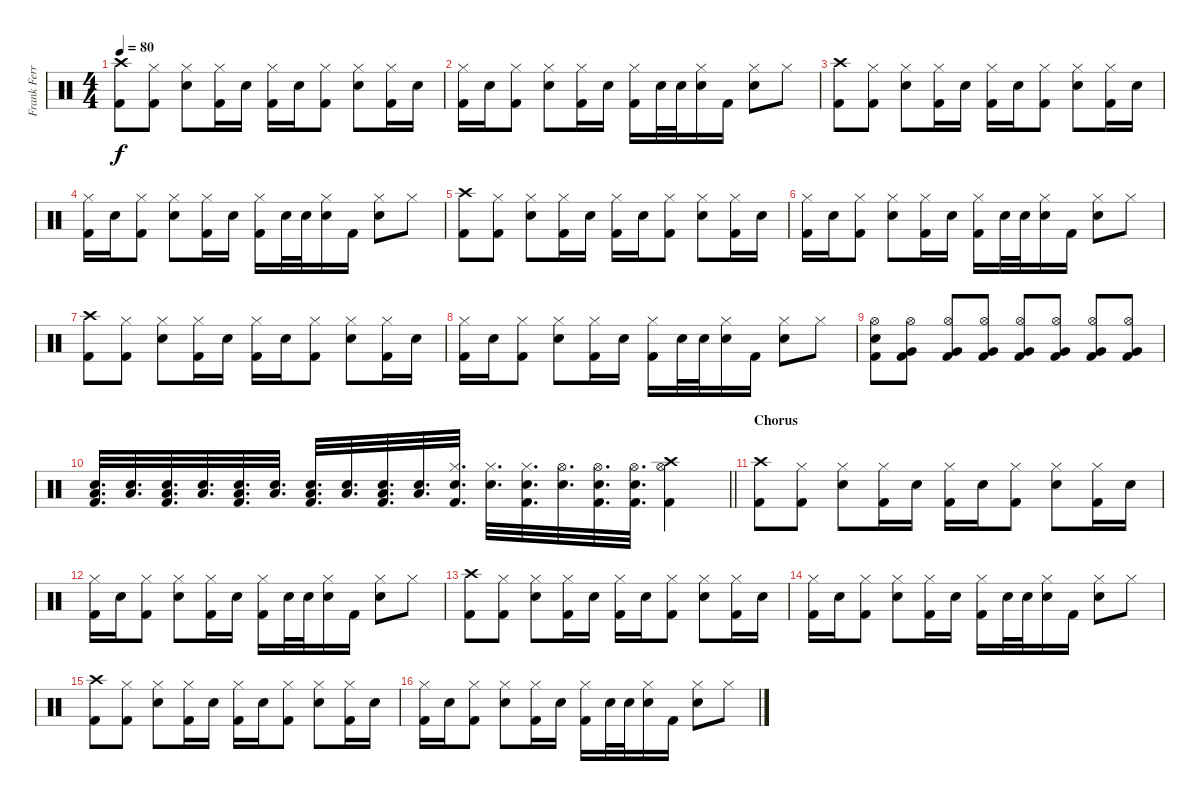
\track ("Frank Ferrer" "Frank Ferr") {instrument percussion}
\staff {score}
\articulation defaults
\ts (4 4)
\tempo 80
\clef neutral
\ks c
("Crash high (hit)" "Kick (hit) 2").8{dy f} ("Hi-Hat (closed)" "Kick (hit) 2").8 ("Hi-Hat (closed)" "Snare (hit) 2").8 ("Hi-Hat (closed)" "Kick (hit) 2").16 "Snare (hit) 2".16 ("Hi-Hat (closed)" "Kick (hit) 2").16 "Snare (hit) 2".16 ("Hi-Hat (closed)" "Kick (hit) 2").8 ("Hi-Hat (closed)" "Snare (hit) 2").8 ("Hi-Hat (closed)" "Kick (hit) 2").16 "Snare (hit) 2".16 |
("Hi-Hat (closed)" "Kick (hit) 2").16 "Snare (hit) 2".16 ("Hi-Hat (closed)" "Kick (hit) 2").8 ("Hi-Hat (closed)" "Snare (hit) 2").8 ("Hi-Hat (closed)" "Kick (hit) 2").16 "Snare (hit) 2".16 ("Hi-Hat (closed)" "Kick (hit) 2").16 "Snare (hit) 2".32 "Snare (hit) 2".32 ("Hi-Hat (closed)" "Snare (hit) 2").16 "Kick (hit) 2".16 ("Hi-Hat (closed)" "Snare (hit) 2").8 "Hi-Hat (closed)".8 |
("Crash high (hit)" "Kick (hit) 2").8 ("Hi-Hat (closed)" "Kick (hit) 2").8 ("Hi-Hat (closed)" "Snare (hit) 2").8 ("Hi-Hat (closed)" "Kick (hit) 2").16 "Snare (hit) 2".16 ("Hi-Hat (closed)" "Kick (hit) 2").16 "Snare (hit) 2".16 ("Hi-Hat (closed)" "Kick (hit) 2").8 ("Hi-Hat (closed)" "Snare (hit) 2").8 ("Hi-Hat (closed)" "Kick (hit) 2").16 "Snare (hit) 2".16 |
("Hi-Hat (closed)" "Kick (hit) 2").16 "Snare (hit) 2".16 ("Hi-Hat (closed)" "Kick (hit) 2").8 ("Hi-Hat (closed)" "Snare (hit) 2").8 ("Hi-Hat (closed)" "Kick (hit) 2").16 "Snare (hit) 2".16 ("Hi-Hat (closed)" "Kick (hit) 2").16 "Snare (hit) 2".32 "Snare (hit) 2".32 ("Hi-Hat (closed)" "Snare (hit) 2").16 "Kick (hit) 2".16 ("Hi-Hat (closed)" "Snare (hit) 2").8 "Hi-Hat (closed)".8 |
("Crash high (hit)" "Kick (hit) 2").8 ("Hi-Hat (closed)" "Kick (hit) 2").8 ("Hi-Hat (closed)" "Snare (hit) 2").8 ("Hi-Hat (closed)" "Kick (hit) 2").16 "Snare (hit) 2".16 ("Hi-Hat (closed)" "Kick (hit) 2").16 "Snare (hit) 2".16 ("Hi-Hat (closed)" "Kick (hit) 2").8 ("Hi-Hat (closed)" "Snare (hit) 2").8 ("Hi-Hat (closed)" "Kick (hit) 2").16 "Snare (hit) 2".16 |
("Hi-Hat (closed)" "Kick (hit) 2").16 "Snare (hit) 2".16 ("Hi-Hat (closed)" "Kick (hit) 2").8 ("Hi-Hat (closed)" "Snare (hit) 2").8 ("Hi-Hat (closed)" "Kick (hit) 2").16 "Snare (hit) 2".16 ("Hi-Hat (closed)" "Kick (hit) 2").16 "Snare (hit) 2".32 "Snare (hit) 2".32 ("Hi-Hat (closed)" "Snare (hit) 2").16 "Kick (hit) 2".16 ("Hi-Hat (closed)" "Snare (hit) 2").8 "Hi-Hat (closed)".8 |
("Crash high (hit)" "Kick (hit) 2").8 ("Hi-Hat (closed)" "Kick (hit) 2").8 ("Hi-Hat (closed)" "Snare (hit) 2").8 ("Hi-Hat (closed)" "Kick (hit) 2").16 "Snare (hit) 2".16 ("Hi-Hat (closed)" "Kick (hit) 2").16 "Snare (hit) 2".16 ("Hi-Hat (closed)" "Kick (hit) 2").8 ("Hi-Hat (closed)" "Snare (hit) 2").8 ("Hi-Hat (closed)" "Kick (hit) 2").16 "Snare (hit) 2".16 |
("Hi-Hat (closed)" "Kick (hit) 2").16 "Snare (hit) 2".16 ("Hi-Hat (closed)" "Kick (hit) 2").8 ("Hi-Hat (closed)" "Snare (hit) 2").8 ("Hi-Hat (closed)" "Kick (hit) 2").16 "Snare (hit) 2".16 ("Hi-Hat (closed)" "Kick (hit) 2").16 "Snare (hit) 2".32 "Snare (hit) 2".32 ("Hi-Hat (closed)" "Snare (hit) 2").16 "Kick (hit) 2".16 ("Hi-Hat (closed)" "Snare (hit) 2").8 "Hi-Hat (closed)".8 |
("Hi-Hat (open)" "Snare (hit) 2" "Kick (hit) 2").8 ("Hi-Hat (open)" "Kick (hit) 2" "Very Low Tom (hit)").8 ("Hi-Hat (open)" "Kick (hit) 2" "Very Low Tom (hit)").8 ("Hi-Hat (open)" "Kick (hit) 2" "Very Low Tom (hit)").8 ("Hi-Hat (open)" "Kick (hit) 2" "Very Low Tom (hit)").8 ("Hi-Hat (open)" "Kick (hit) 2" "Very Low Tom (hit)").8 ("Hi-Hat (open)" "Kick (hit) 2" "Very Low Tom (hit)").8 ("Hi-Hat (open)" "Kick (hit) 2" "Very Low Tom (hit)").8 |
\barLineRight lightlight
("Low Floor Tom (hit)" "Snare (hit) 2" "Kick (hit) 2").32{d} ("Low Floor Tom (hit)" "Snare (hit) 2").32{d} ("Low Floor Tom (hit)" "Snare (hit) 2" "Kick (hit) 2").32{d} ("Low Floor Tom (hit)" "Snare (hit) 2").32{d} ("Low Floor Tom (hit)" "Snare (hit) 2" "Kick (hit) 2").32{d} ("Low Floor Tom (hit)" "Snare (hit) 2").32{d} ("Low Floor Tom (hit)" "Snare (hit) 2" "Kick (hit) 2").32{d} ("Low Floor Tom (hit)" "Snare (hit) 2").32{d} ("Low Floor Tom (hit)" "Snare (hit) 2" "Kick (hit) 2").32{d} ("Low Floor Tom (hit)" "Snare (hit) 2").32{d} ("Hi-Hat (closed)" "Snare (hit) 2" "Kick (hit) 2").32{d} ("Hi-Hat (closed)" "Snare (hit) 2").32{d} ("Hi-Hat (closed)" "Snare (hit) 2" "Kick (hit) 2").32{d} ("Hi-Hat (open)" "Snare (hit) 2").32{d} ("Hi-Hat (open)" "Snare (hit) 2" "Kick (hit) 2").32{d} ("Hi-Hat (open)" "Snare (hit) 2" "Kick (hit) 2").32{d} ("Crash high (hit)" "Hi-Hat (open)" "Kick (hit) 2").4 |
\section ("" "Chorus")
("Crash high (hit)" "Kick (hit) 2").8 ("Hi-Hat (closed)" "Kick (hit) 2").8 ("Hi-Hat (closed)" "Snare (hit) 2").8 ("Hi-Hat (closed)" "Kick (hit) 2").16 "Snare (hit) 2".16 ("Hi-Hat (closed)" "Kick (hit) 2").16 "Snare (hit) 2".16 ("Hi-Hat (closed)" "Kick (hit) 2").8 ("Hi-Hat (closed)" "Snare (hit) 2").8 ("Hi-Hat (closed)" "Kick (hit) 2").16 "Snare (hit) 2".16 |
("Hi-Hat (closed)" "Kick (hit) 2").16 "Snare (hit) 2".16 ("Hi-Hat (closed)" "Kick (hit) 2").8 ("Hi-Hat (closed)" "Snare (hit) 2").8 ("Hi-Hat (closed)" "Kick (hit) 2").16 "Snare (hit) 2".16 ("Hi-Hat (closed)" "Kick (hit) 2").16 "Snare (hit) 2".32 "Snare (hit) 2".32 ("Hi-Hat (closed)" "Snare (hit) 2").16 "Kick (hit) 2".16 ("Hi-Hat (closed)" "Snare (hit) 2").8 "Hi-Hat (closed)".8 |
("Crash high (hit)" "Kick (hit) 2").8 ("Hi-Hat (closed)" "Kick (hit) 2").8 ("Hi-Hat (closed)" "Snare (hit) 2").8 ("Hi-Hat (closed)" "Kick (hit) 2").16 "Snare (hit) 2".16 ("Hi-Hat (closed)" "Kick (hit) 2").16 "Snare (hit) 2".16 ("Hi-Hat (closed)" "Kick (hit) 2").8 ("Hi-Hat (closed)" "Snare (hit) 2").8 ("Hi-Hat (closed)" "Kick (hit) 2").16 "Snare (hit) 2".16 |
("Hi-Hat (closed)" "Kick (hit) 2").16 "Snare (hit) 2".16 ("Hi-Hat (closed)" "Kick (hit) 2").8 ("Hi-Hat (closed)" "Snare (hit) 2").8 ("Hi-Hat (closed)" "Kick (hit) 2").16 "Snare (hit) 2".16 ("Hi-Hat (closed)" "Kick (hit) 2").16 "Snare (hit) 2".32 "Snare (hit) 2".32 ("Hi-Hat (closed)" "Snare (hit) 2").16 "Kick (hit) 2".16 ("Hi-Hat (closed)" "Snare (hit) 2").8 "Hi-Hat (closed)".8 |
("Crash high (hit)" "Kick (hit) 2").8 ("Hi-Hat (closed)" "Kick (hit) 2").8 ("Hi-Hat (closed)" "Snare (hit) 2").8 ("Hi-Hat (closed)" "Kick (hit) 2").16 "Snare (hit) 2".16 ("Hi-Hat (closed)" "Kick (hit) 2").16 "Snare (hit) 2".16 ("Hi-Hat (closed)" "Kick (hit) 2").8 ("Hi-Hat (closed)" "Snare (hit) 2").8 ("Hi-Hat (closed)" "Kick (hit) 2").16 "Snare (hit) 2".16 |
("Hi-Hat (closed)" "Kick (hit) 2").16 "Snare (hit) 2".16 ("Hi-Hat (closed)" "Kick (hit) 2").8 ("Hi-Hat (closed)" "Snare (hit) 2").8 ("Hi-Hat (closed)" "Kick (hit) 2").16 "Snare (hit) 2".16 ("Hi-Hat (closed)" "Kick (hit) 2").16 "Snare (hit) 2".32 "Snare (hit) 2".32 ("Hi-Hat (closed)" "Snare (hit) 2").16 "Kick (hit) 2".16 ("Hi-Hat (closed)" "Snare (hit) 2").8 "Hi-Hat (closed)".8
